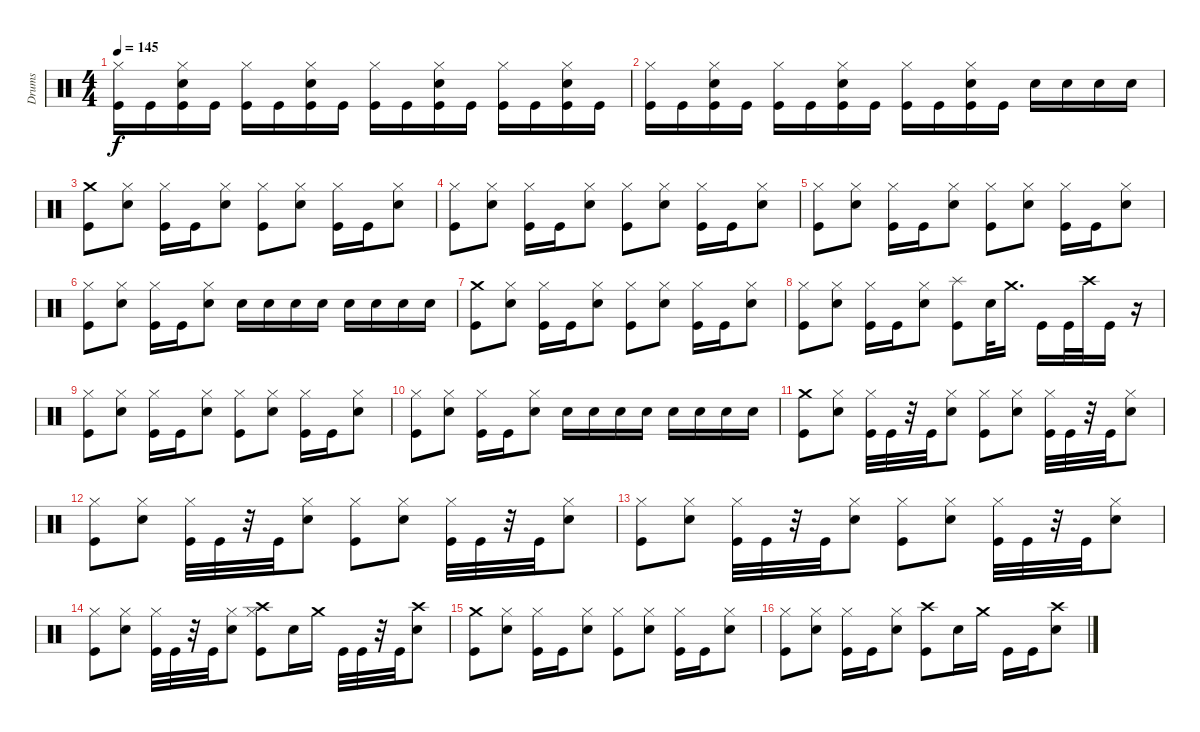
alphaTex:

\track ("Drums" "Drums") {instrument percussion}
\staff {score}
\articulation defaults
\ts (4 4)
\tempo 145
\clef neutral
\ks c
("Hi-Hat (closed)" "Kick (hit)").16{dy f} "Kick (hit)".16 ("Hi-Hat (closed)" "Snare (hit) 2" "Kick (hit)").16 "Kick (hit)".16 ("Hi-Hat (closed)" "Kick (hit)").16 "Kick (hit)".16 ("Hi-Hat (closed)" "Snare (hit) 2" "Kick (hit)").16 "Kick (hit)".16 ("Hi-Hat (closed)" "Kick (hit)").16 "Kick (hit)".16 ("Hi-Hat (closed)" "Snare (hit) 2" "Kick (hit)").16 "Kick (hit)".16 ("Hi-Hat (closed)" "Kick (hit)").16 "Kick (hit)".16 ("Hi-Hat (closed)" "Snare (hit) 2" "Kick (hit)").16 "Kick (hit)".16 |
("Hi-Hat (closed)" "Kick (hit)").16 "Kick (hit)".16 ("Hi-Hat (closed)" "Snare (hit) 2" "Kick (hit)").16 "Kick (hit)".16 ("Hi-Hat (closed)" "Kick (hit)").16 "Kick (hit)".16 ("Hi-Hat (closed)" "Snare (hit) 2" "Kick (hit)").16 "Kick (hit)".16 ("Hi-Hat (closed)" "Kick (hit)").16 "Kick (hit)".16 ("Hi-Hat (closed)" "Snare (hit) 2" "Kick (hit)").16 "Kick (hit)".16 "Snare (hit) 2".16 "Snare (hit) 2".16 "Snare (hit) 2".16 "Snare (hit) 2".16 |
("Crash medium (hit)" "Kick (hit)").8 ("Hi-Hat (closed)" "Snare (hit) 2").8 ("Hi-Hat (closed)" "Kick (hit)").16 "Kick (hit)".16 ("Hi-Hat (closed)" "Snare (hit) 2").8 ("Hi-Hat (closed)" "Kick (hit)").8 ("Hi-Hat (closed)" "Snare (hit) 2").8 ("Hi-Hat (closed)" "Kick (hit)").16 "Kick (hit)".16 ("Hi-Hat (closed)" "Snare (hit) 2").8 |
("Hi-Hat (closed)" "Kick (hit)").8 ("Hi-Hat (closed)" "Snare (hit) 2").8 ("Hi-Hat (closed)" "Kick (hit)").16 "Kick (hit)".16 ("Hi-Hat (closed)" "Snare (hit) 2").8 ("Hi-Hat (closed)" "Kick (hit)").8 ("Hi-Hat (closed)" "Snare (hit) 2").8 ("Hi-Hat (closed)" "Kick (hit)").16 "Kick (hit)".16 ("Hi-Hat (closed)" "Snare (hit) 2").8 |
("Hi-Hat (closed)" "Kick (hit)").8 ("Hi-Hat (closed)" "Snare (hit) 2").8 ("Hi-Hat (closed)" "Kick (hit)").16 "Kick (hit)".16 ("Hi-Hat (closed)" "Snare (hit) 2").8 ("Hi-Hat (closed)" "Kick (hit)").8 ("Hi-Hat (closed)" "Snare (hit) 2").8 ("Hi-Hat (closed)" "Kick (hit)").16 "Kick (hit)".16 ("Hi-Hat (closed)" "Snare (hit) 2").8 |
("Hi-Hat (closed)" "Kick (hit)").8 ("Hi-Hat (closed)" "Snare (hit) 2").8 ("Hi-Hat (closed)" "Kick (hit)").16 "Kick (hit)".16 ("Hi-Hat (closed)" "Snare (hit) 2").8 "Snare (hit) 2".16 "Snare (hit) 2".16 "Snare (hit) 2".16 "Snare (hit) 2".16 "Snare (hit) 2".16 "Snare (hit) 2".16 "Snare (hit) 2".16 "Snare (hit) 2".16 |
("Crash medium (hit)" "Kick (hit)").8 ("Hi-Hat (closed)" "Snare (hit) 2").8 ("Hi-Hat (closed)" "Kick (hit)").16 "Kick (hit)".16 ("Hi-Hat (closed)" "Snare (hit) 2").8 ("Hi-Hat (closed)" "Kick (hit)").8 ("Hi-Hat (closed)" "Snare (hit) 2").8 ("Hi-Hat (closed)" "Kick (hit)").16 "Kick (hit)".16 ("Hi-Hat (closed)" "Snare (hit) 2").8 |
("Hi-Hat (closed)" "Kick (hit)").8 ("Hi-Hat (closed)" "Snare (hit) 2").8 ("Hi-Hat (closed)" "Kick (hit)").16 "Kick (hit)".16 ("Hi-Hat (closed)" "Snare (hit) 2").8 ("Splash (hit)" "Kick (hit)").8 "Snare (hit) 2".32 "Crash medium (hit)".16{d} "Kick (hit)".16 "Kick (hit)".32 "Crash high (hit)".32 "Kick (hit)".16 r.16 |
("Hi-Hat (closed)" "Kick (hit)").8 ("Hi-Hat (closed)" "Snare (hit) 2").8 ("Hi-Hat (closed)" "Kick (hit)").16 "Kick (hit)".16 ("Hi-Hat (closed)" "Snare (hit) 2").8 ("Hi-Hat (closed)" "Kick (hit)").8 ("Hi-Hat (closed)" "Snare (hit) 2").8 ("Hi-Hat (closed)" "Kick (hit)").16 "Kick (hit)".16 ("Hi-Hat (closed)" "Snare (hit) 2").8 |
("Hi-Hat (closed)" "Kick (hit)").8 ("Hi-Hat (closed)" "Snare (hit) 2").8 ("Hi-Hat (closed)" "Kick (hit)").16 "Kick (hit)".16 ("Hi-Hat (closed)" "Snare (hit) 2").8 "Snare (hit) 2".16 "Snare (hit) 2".16 "Snare (hit) 2".16 "Snare (hit) 2".16 "Snare (hit) 2".16 "Snare (hit) 2".16 "Snare (hit) 2".16 "Snare (hit) 2".16 |
("Crash medium (hit)" "Kick (hit)").8 ("Hi-Hat (closed)" "Snare (hit) 2").8 ("Hi-Hat (closed)" "Kick (hit)").32 "Kick (hit)".32 r.32 "Kick (hit)".32 ("Hi-Hat (closed)" "Snare (hit) 2").8 ("Hi-Hat (closed)" "Kick (hit)").8 ("Hi-Hat (closed)" "Snare (hit) 2").8 ("Hi-Hat (closed)" "Kick (hit)").32 "Kick (hit)".32 r.32 "Kick (hit)".32 ("Hi-Hat (closed)" "Snare (hit) 2").8 |
("Hi-Hat (closed)" "Kick (hit)").8 ("Hi-Hat (closed)" "Snare (hit) 2").8 ("Hi-Hat (closed)" "Kick (hit)").32 "Kick (hit)".32 r.32 "Kick (hit)".32 ("Hi-Hat (closed)" "Snare (hit) 2").8 ("Hi-Hat (closed)" "Kick (hit)").8 ("Hi-Hat (closed)" "Snare (hit) 2").8 ("Hi-Hat (closed)" "Kick (hit)").32 "Kick (hit)".32 r.32 "Kick (hit)".32 ("Hi-Hat (closed)" "Snare (hit) 2").8 |
("Hi-Hat (closed)" "Kick (hit)").8 ("Hi-Hat (closed)" "Snare (hit) 2").8 ("Hi-Hat (closed)" "Kick (hit)").32 "Kick (hit)".32 r.32 "Kick (hit)".32 ("Hi-Hat (closed)" "Snare (hit) 2").8 ("Hi-Hat (closed)" "Kick (hit)").8 ("Hi-Hat (closed)" "Snare (hit) 2").8 ("Hi-Hat (closed)" "Kick (hit)").32 "Kick (hit)".32 r.32 "Kick (hit)".32 ("Hi-Hat (closed)" "Snare (hit) 2").8 |
("Hi-Hat (closed)" "Kick (hit)").8 ("Hi-Hat (closed)" "Snare (hit) 2").8 ("Hi-Hat (closed)" "Kick (hit)").32 "Kick (hit)".32 r.32 "Kick (hit)".32 ("Hi-Hat (closed)" "Snare (hit) 2").8 ("Crash high (hit)" "Hi-Hat (closed)" "Kick (hit)").8 "Snare (hit) 2".16 "Crash medium (hit)".16 "Kick (hit)".32 "Kick (hit)".32 r.32 "Kick (hit)".32 ("Crash high (hit)" "Snare (hit) 2").8 |
("Crash medium (hit)" "Kick (hit)").8 ("Hi-Hat (closed)" "Snare (hit) 2").8 ("Hi-Hat (closed)" "Kick (hit)").16 "Kick (hit)".16 ("Hi-Hat (closed)" "Snare (hit) 2").8 ("Hi-Hat (closed)" "Kick (hit)").8 ("Hi-Hat (closed)" "Snare (hit) 2").8 ("Hi-Hat (closed)" "Kick (hit)").16 "Kick (hit)".16 ("Hi-Hat (closed)" "Snare (hit) 2").8 |
("Hi-Hat (closed)" "Kick (hit)").8 ("Hi-Hat (closed)" "Snare (hit) 2").8 ("Hi-Hat (closed)" "Kick (hit)").16 "Kick (hit)".16 ("Hi-Hat (closed)" "Snare (hit) 2").8 ("Crash high (hit)" "Kick (hit)").8 "Snare (hit) 2".16 "Crash medium (hit)".16 "Kick (hit)".16 "Kick (hit)".16 ("Crash high (hit)" "Snare (hit) 2").8
